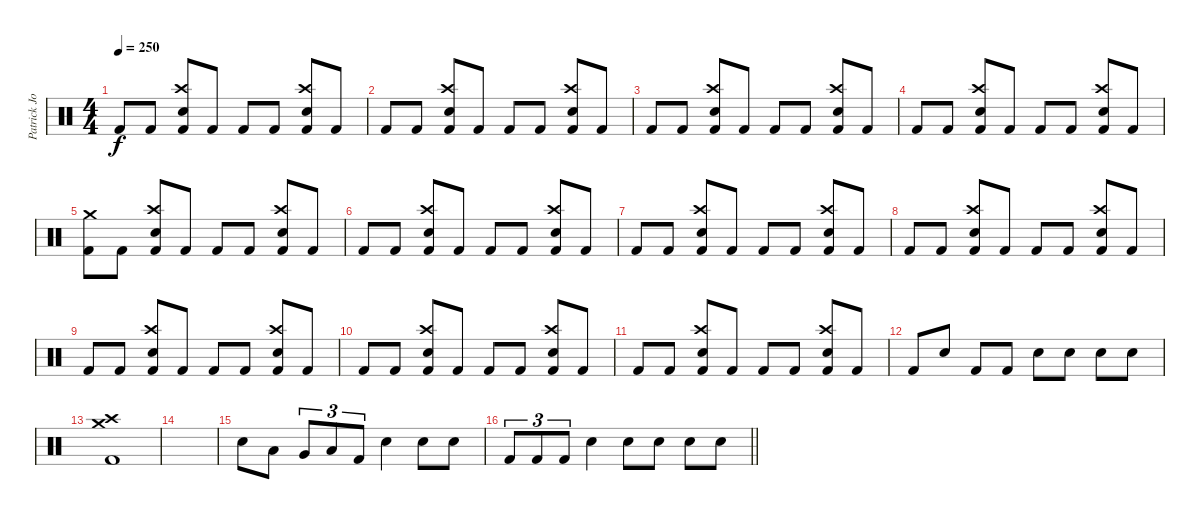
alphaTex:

\track ("Patrick Johansson" "Patrick Jo") {instrument percussion}
\staff {score}
\articulation defaults
\ts (4 4)
\tempo 250
\clef neutral
\ks c "Kick (hit) 2".8{dy f} "Kick (hit) 2".8
("Crash high (hit)" "Snare (hit) 2" "Kick (hit) 2").8 "Kick (hit) 2".8 "Kick (hit) 2".8 "Kick (hit) 2".8 ("Crash high (hit)" "Snare (hit) 2" "Kick (hit) 2").8 "Kick (hit) 2".8 |
"Kick (hit) 2".8 "Kick (hit) 2".8 ("Crash high (hit)" "Snare (hit) 2" "Kick (hit) 2").8 "Kick (hit) 2".8 "Kick (hit) 2".8 "Kick (hit) 2".8 ("Crash high (hit)" "Snare (hit) 2" "Kick (hit) 2").8 "Kick (hit) 2".8 |
"Kick (hit) 2".8 "Kick (hit) 2".8 ("Crash high (hit)" "Snare (hit) 2" "Kick (hit) 2").8 "Kick (hit) 2".8 "Kick (hit) 2".8 "Kick (hit) 2".8 ("Crash high (hit)" "Snare (hit) 2" "Kick (hit) 2").8 "Kick (hit) 2".8 |
"Kick (hit) 2".8 "Kick (hit) 2".8 ("Crash high (hit)" "Snare (hit) 2" "Kick (hit) 2").8 "Kick (hit) 2".8 "Kick (hit) 2".8 "Kick (hit) 2".8 ("Crash high (hit)" "Snare (hit) 2" "Kick (hit) 2").8 "Kick (hit) 2".8 |
("Crash medium (hit)" "Kick (hit) 2").8 "Kick (hit) 2".8 ("Crash high (hit)" "Snare (hit) 2" "Kick (hit) 2").8 "Kick (hit) 2".8 "Kick (hit) 2".8 "Kick (hit) 2".8 ("Crash high (hit)" "Snare (hit) 2" "Kick (hit) 2").8 "Kick (hit) 2".8 |
"Kick (hit) 2".8 "Kick (hit) 2".8 ("Crash high (hit)" "Snare (hit) 2" "Kick (hit) 2").8 "Kick (hit) 2".8 "Kick (hit) 2".8 "Kick (hit) 2".8 ("Crash high (hit)" "Snare (hit) 2" "Kick (hit) 2").8 "Kick (hit) 2".8 |
"Kick (hit) 2".8 "Kick (hit) 2".8 ("Crash high (hit)" "Snare (hit) 2" "Kick (hit) 2").8 "Kick (hit) 2".8 "Kick (hit) 2".8 "Kick (hit) 2".8 ("Crash high (hit)" "Snare (hit) 2" "Kick (hit) 2").8 "Kick (hit) 2".8 |
"Kick (hit) 2".8 "Kick (hit) 2".8 ("Crash high (hit)" "Snare (hit) 2" "Kick (hit) 2").8 "Kick (hit) 2".8 "Kick (hit) 2".8 "Kick (hit) 2".8 ("Crash high (hit)" "Snare (hit) 2" "Kick (hit) 2").8 "Kick (hit) 2".8 |
"Kick (hit) 2".8 "Kick (hit) 2".8 ("Crash high (hit)" "Snare (hit) 2" "Kick (hit) 2").8 "Kick (hit) 2".8 "Kick (hit) 2".8 "Kick (hit) 2".8 ("Crash high (hit)" "Snare (hit) 2" "Kick (hit) 2").8 "Kick (hit) 2".8 |
"Kick (hit) 2".8 "Kick (hit) 2".8 ("Crash high (hit)" "Snare (hit) 2" "Kick (hit) 2").8 "Kick (hit) 2".8 "Kick (hit) 2".8 "Kick (hit) 2".8 ("Crash high (hit)" "Snare (hit) 2" "Kick (hit) 2").8 "Kick (hit) 2".8 |
"Kick (hit) 2".8 "Kick (hit) 2".8 ("Crash high (hit)" "Snare (hit) 2" "Kick (hit) 2").8 "Kick (hit) 2".8 "Kick (hit) 2".8 "Kick (hit) 2".8 ("Crash high (hit)" "Snare (hit) 2" "Kick (hit) 2").8 "Kick (hit) 2".8 |
"Kick (hit) 2".8 "Snare (hit) 2".8 "Kick (hit) 2".8 "Kick (hit) 2".8 "Snare (hit) 2".8 "Snare (hit) 2".8 "Snare (hit) 2".8 "Snare (hit) 2".8 |
("Crash medium (hit)" "Crash high (hit)" "Kick (hit) 2").1 |
|
"Snare (hit) 2".8 "Low Tom (hit)".8 "Very Low Tom (hit)".8{tu (3 2)} "Low Floor Tom (hit)".8{tu (3 2)} "Kick (hit) 2".8{tu (3 2)} "Snare (hit) 2".4 "Snare (hit) 2".8 "Snare (hit) 2".8 |
\barLineRight lightlight "Kick (hit) 2".8{tu (3 2)} "Kick (hit) 2".8{tu (3 2)} "Kick (hit) 2".8{tu (3 2)} "Snare (hit) 2".4 "Snare (hit) 2".8 "Snare (hit) 2".8 "Snare (hit) 2".8 "Snare (hit) 2".8
